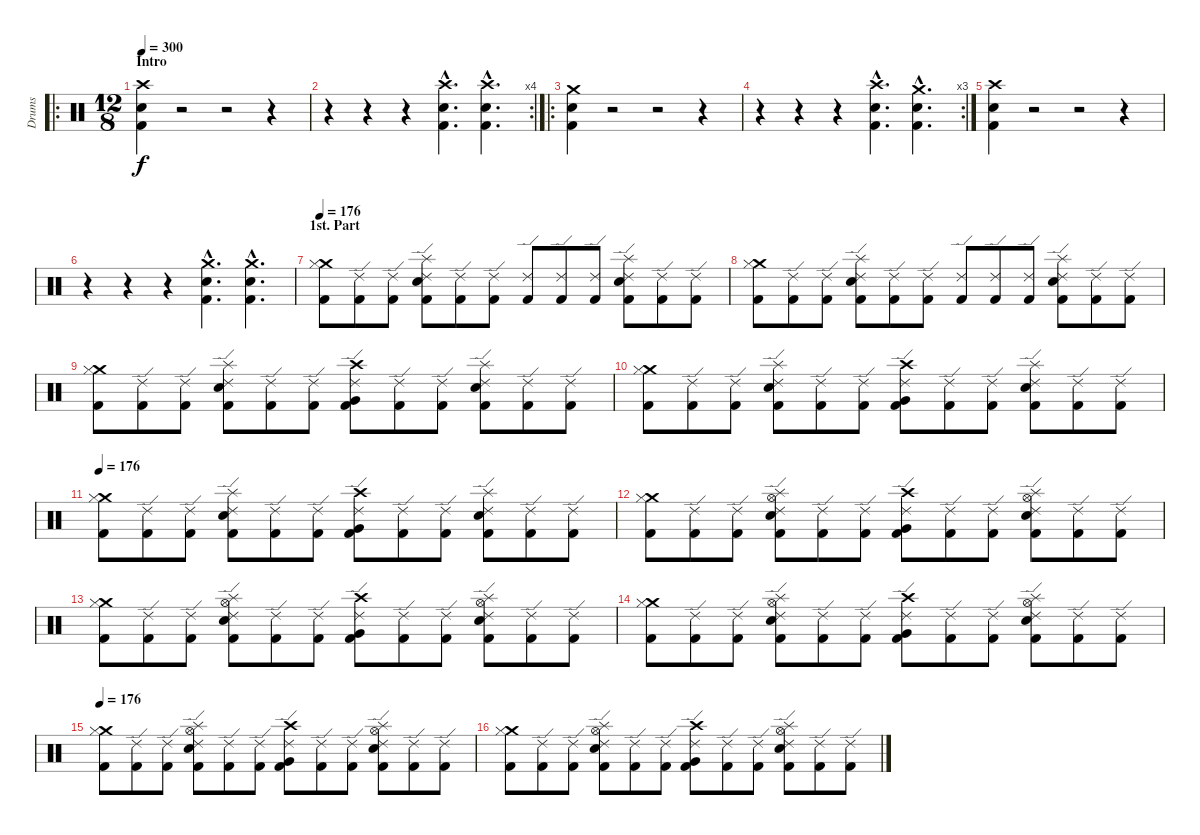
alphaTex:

\track ("Drums" "Drums") {instrument percussion}
\staff {score}
\articulation defaults
\ro
\ts (12 8)
\section ("" "Intro")
\tempo 300
\clef neutral
\ks c
("Crash high (hit)" "Snare (hit) 2" "Kick (hit) 2").4{dy f} r.2 r.2 r.4 |
\rc 4
r.4 r.4 r.4 ("Crash high (hit)"{hac} "Snare (hit) 2"{hac} "Kick (hit) 2"{hac}).4{d} ("Crash high (hit)"{hac} "Snare (hit) 2"{hac} "Kick (hit) 2"{hac}).4{d} |
\ro
("Crash medium (hit)" "Snare (hit) 2" "Kick (hit) 2").4 r.2 r.2 r.4 |
\rc 3
r.4 r.4 r.4 ("Crash high (hit)"{hac} "Snare (hit) 2"{hac} "Kick (hit) 2"{hac}).4{d} ("Crash medium (hit)"{hac} "Snare (hit) 2"{hac} "Kick (hit) 2"{hac}).4{d} |
("Crash high (hit)" "Snare (hit) 2" "Kick (hit) 2").4 r.2 r.2 r.4 |
r.4 r.4 r.4 ("Crash medium (hit)"{hac} "Snare (hit) 2"{hac} "Kick (hit) 2"{hac}).4{d} ("Crash medium (hit)"{hac} "Snare (hit) 2"{hac} "Kick (hit) 2"{hac}).4{d} |
\section ("" "1st. Part")
\tempo 176
("Crash medium (hit)" "Hi-Hat (closed)" "Kick (hit) 2").8 ("Ride (edge) 2" "Kick (hit) 2").8 ("Ride (edge) 2" "Kick (hit) 2").8 ("Splash (hit)" "Snare (hit) 2" "Ride (edge) 2" "Kick (hit) 2").8 ("Ride (edge) 2" "Kick (hit) 2").8 ("Ride (edge) 2" "Kick (hit) 2").8 ("Ride (edge) 2" "Kick (hit) 2").8 ("Ride (edge) 2" "Kick (hit) 2").8 ("Ride (edge) 2" "Kick (hit) 2").8 ("Splash (hit)" "Snare (hit) 2" "Ride (edge) 2" "Kick (hit) 2").8 ("Ride (edge) 2" "Kick (hit) 2").8 ("Ride (edge) 2" "Kick (hit) 2").8 |
("Crash medium (hit)" "Hi-Hat (closed)" "Kick (hit) 2").8 ("Ride (edge) 2" "Kick (hit) 2").8 ("Ride (edge) 2" "Kick (hit) 2").8 ("Splash (hit)" "Snare (hit) 2" "Ride (edge) 2" "Kick (hit) 2").8 ("Ride (edge) 2" "Kick (hit) 2").8 ("Ride (edge) 2" "Kick (hit) 2").8 ("Ride (edge) 2" "Kick (hit) 2").8 ("Ride (edge) 2" "Kick (hit) 2").8 ("Ride (edge) 2" "Kick (hit) 2").8 ("Splash (hit)" "Snare (hit) 2" "Ride (edge) 2" "Kick (hit) 2").8 ("Ride (edge) 2" "Kick (hit) 2").8 ("Ride (edge) 2" "Kick (hit) 2").8 |
("Crash medium (hit)" "Hi-Hat (closed)" "Kick (hit) 2").8 ("Ride (edge) 2" "Kick (hit) 2").8 ("Ride (edge) 2" "Kick (hit) 2").8 ("Splash (hit)" "Snare (hit) 2" "Ride (edge) 2" "Kick (hit) 2").8 ("Ride (edge) 2" "Kick (hit) 2").8 ("Ride (edge) 2" "Kick (hit) 2").8 ("Crash high (hit)" "Very Low Tom (hit)" "Ride (edge) 2" "Kick (hit) 2").8 ("Ride (edge) 2" "Kick (hit) 2").8 ("Ride (edge) 2" "Kick (hit) 2").8 ("Splash (hit)" "Snare (hit) 2" "Ride (edge) 2" "Kick (hit) 2").8 ("Ride (edge) 2" "Kick (hit) 2").8 ("Ride (edge) 2" "Kick (hit) 2").8 |
("Crash medium (hit)" "Hi-Hat (closed)" "Kick (hit) 2").8 ("Ride (edge) 2" "Kick (hit) 2").8 ("Ride (edge) 2" "Kick (hit) 2").8 ("Splash (hit)" "Snare (hit) 2" "Ride (edge) 2" "Kick (hit) 2").8 ("Ride (edge) 2" "Kick (hit) 2").8 ("Ride (edge) 2" "Kick (hit) 2").8 ("Crash high (hit)" "Very Low Tom (hit)" "Ride (edge) 2" "Kick (hit) 2").8 ("Ride (edge) 2" "Kick (hit) 2").8 ("Ride (edge) 2" "Kick (hit) 2").8 ("Splash (hit)" "Snare (hit) 2" "Ride (edge) 2" "Kick (hit) 2").8 ("Ride (edge) 2" "Kick (hit) 2").8 ("Ride (edge) 2" "Kick (hit) 2").8 |
\tempo 176
("Crash medium (hit)" "Hi-Hat (closed)" "Kick (hit) 2").8 ("Ride (edge) 2" "Kick (hit) 2").8 ("Ride (edge) 2" "Kick (hit) 2").8 ("Splash (hit)" "Snare (hit) 2" "Ride (edge) 2" "Kick (hit) 2").8 ("Ride (edge) 2" "Kick (hit) 2").8 ("Ride (edge) 2" "Kick (hit) 2").8 ("Crash high (hit)" "Very Low Tom (hit)" "Ride (edge) 2" "Kick (hit) 2").8 ("Ride (edge) 2" "Kick (hit) 2").8 ("Ride (edge) 2" "Kick (hit) 2").8 ("Splash (hit)" "Snare (hit) 2" "Ride (edge) 2" "Kick (hit) 2").8 ("Ride (edge) 2" "Kick (hit) 2").8 ("Ride (edge) 2" "Kick (hit) 2").8 |
("Crash medium (hit)" "Hi-Hat (closed)" "Kick (hit) 2").8 ("Ride (edge) 2" "Kick (hit) 2").8 ("Ride (edge) 2" "Kick (hit) 2").8 ("Splash (hit)" "Snare (hit) 2" "Hi-Hat (open)" "Ride (edge) 2" "Kick (hit) 2").8 ("Ride (edge) 2" "Kick (hit) 2").8 ("Ride (edge) 2" "Kick (hit) 2").8 ("Crash high (hit)" "Very Low Tom (hit)" "Ride (edge) 2" "Kick (hit) 2").8 ("Ride (edge) 2" "Kick (hit) 2").8 ("Ride (edge) 2" "Kick (hit) 2").8 ("Splash (hit)" "Snare (hit) 2" "Hi-Hat (open)" "Ride (edge) 2" "Kick (hit) 2").8 ("Ride (edge) 2" "Kick (hit) 2").8 ("Ride (edge) 2" "Kick (hit) 2").8 |
("Crash medium (hit)" "Hi-Hat (closed)" "Kick (hit) 2").8 ("Ride (edge) 2" "Kick (hit) 2").8 ("Ride (edge) 2" "Kick (hit) 2").8 ("Splash (hit)" "Snare (hit) 2" "Hi-Hat (open)" "Ride (edge) 2" "Kick (hit) 2").8 ("Ride (edge) 2" "Kick (hit) 2").8 ("Ride (edge) 2" "Kick (hit) 2").8 ("Crash high (hit)" "Very Low Tom (hit)" "Ride (edge) 2" "Kick (hit) 2").8 ("Ride (edge) 2" "Kick (hit) 2").8 ("Ride (edge) 2" "Kick (hit) 2").8 ("Splash (hit)" "Snare (hit) 2" "Hi-Hat (open)" "Ride (edge) 2" "Kick (hit) 2").8 ("Ride (edge) 2" "Kick (hit) 2").8 ("Ride (edge) 2" "Kick (hit) 2").8 |
("Crash medium (hit)" "Hi-Hat (closed)" "Kick (hit) 2").8 ("Ride (edge) 2" "Kick (hit) 2").8 ("Ride (edge) 2" "Kick (hit) 2").8 ("Splash (hit)" "Snare (hit) 2" "Hi-Hat (open)" "Ride (edge) 2" "Kick (hit) 2").8 ("Ride (edge) 2" "Kick (hit) 2").8 ("Ride (edge) 2" "Kick (hit) 2").8 ("Crash high (hit)" "Very Low Tom (hit)" "Ride (edge) 2" "Kick (hit) 2").8 ("Ride (edge) 2" "Kick (hit) 2").8 ("Ride (edge) 2" "Kick (hit) 2").8 ("Splash (hit)" "Snare (hit) 2" "Hi-Hat (open)" "Ride (edge) 2" "Kick (hit) 2").8 ("Ride (edge) 2" "Kick (hit) 2").8 ("Ride (edge) 2" "Kick (hit) 2").8 |
\tempo 176
("Crash medium (hit)" "Hi-Hat (closed)" "Kick (hit) 2").8 ("Ride (edge) 2" "Kick (hit) 2").8 ("Ride (edge) 2" "Kick (hit) 2").8 ("Splash (hit)" "Snare (hit) 2" "Hi-Hat (open)" "Ride (edge) 2" "Kick (hit) 2").8 ("Ride (edge) 2" "Kick (hit) 2").8 ("Ride (edge) 2" "Kick (hit) 2").8 ("Crash high (hit)" "Very Low Tom (hit)" "Ride (edge) 2" "Kick (hit) 2").8 ("Ride (edge) 2" "Kick (hit) 2").8 ("Ride (edge) 2" "Kick (hit) 2").8 ("Splash (hit)" "Snare (hit) 2" "Hi-Hat (open)" "Ride (edge) 2" "Kick (hit) 2").8 ("Ride (edge) 2" "Kick (hit) 2").8 ("Ride (edge) 2" "Kick (hit) 2").8 |
("Crash medium (hit)" "Hi-Hat (closed)" "Kick (hit) 2").8 ("Ride (edge) 2" "Kick (hit) 2").8 ("Ride (edge) 2" "Kick (hit) 2").8 ("Splash (hit)" "Snare (hit) 2" "Hi-Hat (open)" "Ride (edge) 2" "Kick (hit) 2").8 ("Ride (edge) 2" "Kick (hit) 2").8 ("Ride (edge) 2" "Kick (hit) 2").8 ("Crash high (hit)" "Very Low Tom (hit)" "Ride (edge) 2" "Kick (hit) 2").8 ("Ride (edge) 2" "Kick (hit) 2").8 ("Ride (edge) 2" "Kick (hit) 2").8 ("Splash (hit)" "Snare (hit) 2" "Hi-Hat (open)" "Ride (edge) 2" "Kick (hit) 2").8 ("Ride (edge) 2" "Kick (hit) 2").8 ("Ride (edge) 2" "Kick (hit) 2").8
